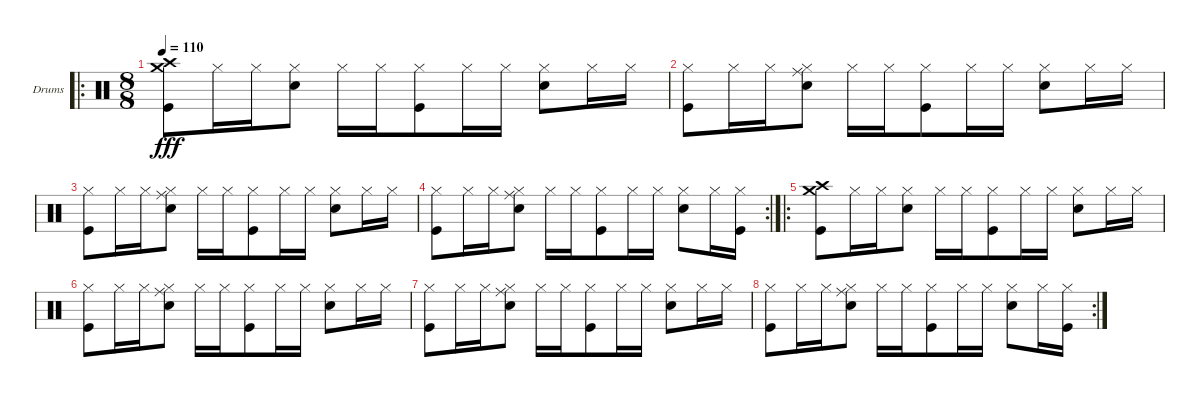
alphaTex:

\bracketExtendMode groupsimilarinstruments
\firstSystemTrackNameOrientation horizontal
\otherSystemsTrackNameOrientation horizontal
\track ("Сеня(Drumkit)" "Drums") {instrument percussion}
\staff {score}
\articulation defaults
\ro
\ts (8 8)
\tempo 110
\clef neutral
\ks c
("Kick (hit)" "Crash high (hit)" "Crash medium (hit)").8{dy fff} "Hi-Hat (closed)".16 "Hi-Hat (closed)".16 ("Hi-Hat (closed)" "Snare (hit) 2").8 "Hi-Hat (closed)".16 "Hi-Hat (closed)".16 ("Hi-Hat (closed)" "Kick (hit)").8 "Hi-Hat (closed)".16 "Hi-Hat (closed)".16 ("Hi-Hat (closed)" "Snare (hit) 2").8 "Hi-Hat (closed)".16 "Hi-Hat (closed)".16 |
("Kick (hit)" "Hi-Hat (closed)").8 "Hi-Hat (closed)".16 "Hi-Hat (closed)".16 ("Hi-Hat (closed)" "Ride (middle)" "Snare (hit) 2").8 "Hi-Hat (closed)".16 "Hi-Hat (closed)".16 ("Kick (hit)" "Hi-Hat (closed)").8 "Hi-Hat (closed)".16 "Hi-Hat (closed)".16 ("Snare (hit) 2" "Hi-Hat (closed)").8 "Hi-Hat (closed)".16 "Hi-Hat (closed)".16 |
("Kick (hit)" "Hi-Hat (closed)").8 "Hi-Hat (closed)".16 "Hi-Hat (closed)".16 ("Hi-Hat (closed)" "Snare (hit) 2" "Ride (middle)").8 "Hi-Hat (closed)".16 "Hi-Hat (closed)".16 ("Kick (hit)" "Hi-Hat (closed)").8 "Hi-Hat (closed)".16 "Hi-Hat (closed)".16 ("Snare (hit) 2" "Hi-Hat (closed)").8 "Hi-Hat (closed)".16 "Hi-Hat (closed)".16 |
\rc 2
("Kick (hit)" "Hi-Hat (closed)").8 "Hi-Hat (closed)".16 "Hi-Hat (closed)".16 ("Hi-Hat (closed)" "Snare (hit) 2" "Ride (middle)").8 "Hi-Hat (closed)".16 "Hi-Hat (closed)".16 ("Kick (hit)" "Hi-Hat (closed)").8 "Hi-Hat (closed)".16 "Hi-Hat (closed)".16 ("Snare (hit) 2" "Hi-Hat (closed)").8 "Hi-Hat (closed)".16 ("Kick (hit)" "Hi-Hat (closed)").16 |
\ro
("Kick (hit)" "Crash high (hit)" "Crash medium (hit)").8 "Hi-Hat (closed)".16 "Hi-Hat (closed)".16 ("Hi-Hat (closed)" "Snare (hit) 2").8 "Hi-Hat (closed)".16 "Hi-Hat (closed)".16 ("Hi-Hat (closed)" "Kick (hit)").8 "Hi-Hat (closed)".16 "Hi-Hat (closed)".16 ("Hi-Hat (closed)" "Snare (hit) 2").8 "Hi-Hat (closed)".16 "Hi-Hat (closed)".16 |
("Kick (hit)" "Hi-Hat (closed)").8 "Hi-Hat (closed)".16 "Hi-Hat (closed)".16 ("Hi-Hat (closed)" "Ride (middle)" "Snare (hit) 2").8 "Hi-Hat (closed)".16 "Hi-Hat (closed)".16 ("Kick (hit)" "Hi-Hat (closed)").8 "Hi-Hat (closed)".16 "Hi-Hat (closed)".16 ("Snare (hit) 2" "Hi-Hat (closed)").8 "Hi-Hat (closed)".16 "Hi-Hat (closed)".16 |
("Kick (hit)" "Hi-Hat (closed)").8 "Hi-Hat (closed)".16 "Hi-Hat (closed)".16 ("Hi-Hat (closed)" "Snare (hit) 2" "Ride (middle)").8 "Hi-Hat (closed)".16 "Hi-Hat (closed)".16 ("Kick (hit)" "Hi-Hat (closed)").8 "Hi-Hat (closed)".16 "Hi-Hat (closed)".16 ("Snare (hit) 2" "Hi-Hat (closed)").8 "Hi-Hat (closed)".16 "Hi-Hat (closed)".16 |
\rc 2
("Kick (hit)" "Hi-Hat (closed)").8 "Hi-Hat (closed)".16 "Hi-Hat (closed)".16 ("Hi-Hat (closed)" "Snare (hit) 2" "Ride (middle)").8 "Hi-Hat (closed)".16 "Hi-Hat (closed)".16 ("Kick (hit)" "Hi-Hat (closed)").8 "Hi-Hat (closed)".16 "Hi-Hat (closed)".16 ("Snare (hit) 2" "Hi-Hat (closed)").8 "Hi-Hat (closed)".16 ("Kick (hit)" "Hi-Hat (closed)").16
